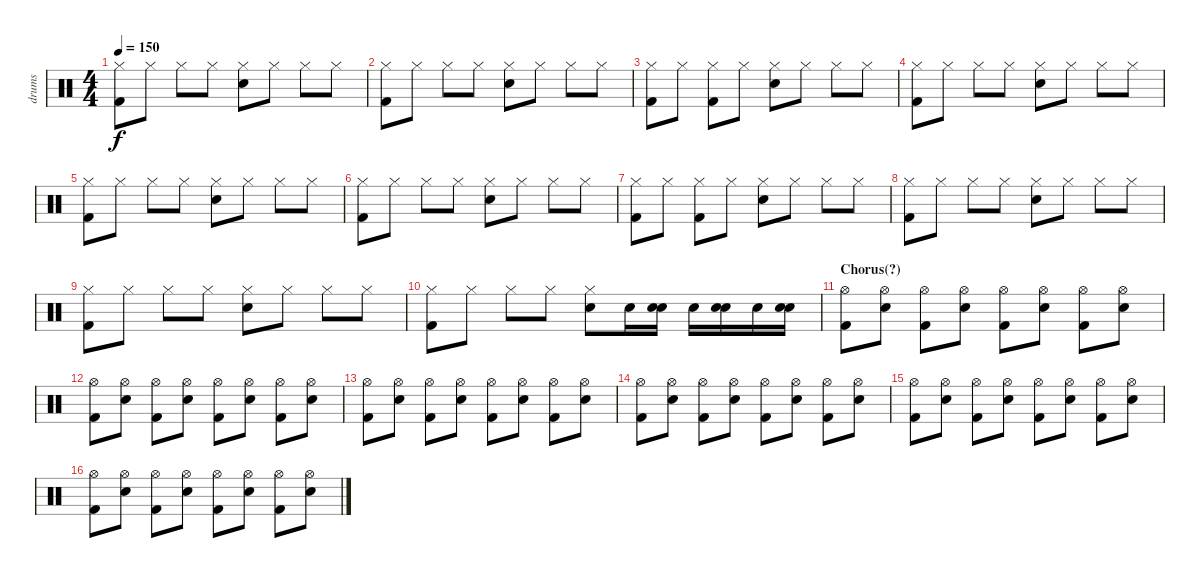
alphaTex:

\track ("drums" "drums") {instrument percussion}
\staff {score}
\articulation defaults
\ts (4 4)
\tempo 150
\clef neutral
\ks c
("Hi-Hat (closed)" "Kick (hit) 2").8{dy f} "Hi-Hat (closed)".8 "Hi-Hat (closed)".8 "Hi-Hat (closed)".8 ("Hi-Hat (closed)" "Snare (hit) 2").8 "Hi-Hat (closed)".8 "Hi-Hat (closed)".8 "Hi-Hat (closed)".8 |
("Hi-Hat (closed)" "Kick (hit) 2").8 "Hi-Hat (closed)".8 "Hi-Hat (closed)".8 "Hi-Hat (closed)".8 ("Hi-Hat (closed)" "Snare (hit) 2").8 "Hi-Hat (closed)".8 "Hi-Hat (closed)".8 "Hi-Hat (closed)".8 |
("Hi-Hat (closed)" "Kick (hit) 2").8 "Hi-Hat (closed)".8 ("Hi-Hat (closed)" "Kick (hit) 2").8 "Hi-Hat (closed)".8 ("Hi-Hat (closed)" "Snare (hit) 2").8 "Hi-Hat (closed)".8 "Hi-Hat (closed)".8 "Hi-Hat (closed)".8 |
("Hi-Hat (closed)" "Kick (hit) 2").8 "Hi-Hat (closed)".8 "Hi-Hat (closed)".8 "Hi-Hat (closed)".8 ("Hi-Hat (closed)" "Snare (hit) 2").8 "Hi-Hat (closed)".8 "Hi-Hat (closed)".8 "Hi-Hat (closed)".8 |
("Hi-Hat (closed)" "Kick (hit) 2").8 "Hi-Hat (closed)".8 "Hi-Hat (closed)".8 "Hi-Hat (closed)".8 ("Hi-Hat (closed)" "Snare (hit) 2").8 "Hi-Hat (closed)".8 "Hi-Hat (closed)".8 "Hi-Hat (closed)".8 |
("Hi-Hat (closed)" "Kick (hit) 2").8 "Hi-Hat (closed)".8 "Hi-Hat (closed)".8 "Hi-Hat (closed)".8 ("Hi-Hat (closed)" "Snare (hit) 2").8 "Hi-Hat (closed)".8 "Hi-Hat (closed)".8 "Hi-Hat (closed)".8 |
("Hi-Hat (closed)" "Kick (hit) 2").8 "Hi-Hat (closed)".8 ("Hi-Hat (closed)" "Kick (hit) 2").8 "Hi-Hat (closed)".8 ("Hi-Hat (closed)" "Snare (hit) 2").8 "Hi-Hat (closed)".8 "Hi-Hat (closed)".8 "Hi-Hat (closed)".8 |
("Hi-Hat (closed)" "Kick (hit) 2").8 "Hi-Hat (closed)".8 "Hi-Hat (closed)".8 "Hi-Hat (closed)".8 ("Hi-Hat (closed)" "Snare (hit) 2").8 "Hi-Hat (closed)".8 "Hi-Hat (closed)".8 "Hi-Hat (closed)".8 |
("Hi-Hat (closed)" "Kick (hit) 2").8 "Hi-Hat (closed)".8 "Hi-Hat (closed)".8 "Hi-Hat (closed)".8 ("Hi-Hat (closed)" "Snare (hit) 2").8 "Hi-Hat (closed)".8 "Hi-Hat (closed)".8 "Hi-Hat (closed)".8 |
("Hi-Hat (closed)" "Kick (hit) 2").8 "Hi-Hat (closed)".8 "Hi-Hat (closed)".8 "Hi-Hat (closed)".8 ("Hi-Hat (closed)" "Snare (hit) 2").8 "Snare (hit) 2".16 ("Snare (hit) 2" "Snare (hit) 2").16 "Snare (hit) 2".16 ("Snare (hit) 2" "Snare (hit) 2").16 "Snare (hit) 2".16 ("Snare (hit) 2" "Snare (hit) 2").16 |
\section ("" "Chorus(?)")
("Hi-Hat (open)" "Kick (hit) 2").8 ("Hi-Hat (open)" "Snare (hit) 2").8 ("Hi-Hat (open)" "Kick (hit) 2").8 ("Hi-Hat (open)" "Snare (hit) 2").8 ("Hi-Hat (open)" "Kick (hit) 2").8 ("Hi-Hat (open)" "Snare (hit) 2").8 ("Hi-Hat (open)" "Kick (hit) 2").8 ("Hi-Hat (open)" "Snare (hit) 2").8 |
("Hi-Hat (open)" "Kick (hit) 2").8 ("Hi-Hat (open)" "Snare (hit) 2").8 ("Hi-Hat (open)" "Kick (hit) 2").8 ("Hi-Hat (open)" "Snare (hit) 2").8 ("Hi-Hat (open)" "Kick (hit) 2").8 ("Hi-Hat (open)" "Snare (hit) 2").8 ("Hi-Hat (open)" "Kick (hit) 2").8 ("Hi-Hat (open)" "Snare (hit) 2").8 |
("Hi-Hat (open)" "Kick (hit) 2").8 ("Hi-Hat (open)" "Snare (hit) 2").8 ("Hi-Hat (open)" "Kick (hit) 2").8 ("Hi-Hat (open)" "Snare (hit) 2").8 ("Hi-Hat (open)" "Kick (hit) 2").8 ("Hi-Hat (open)" "Snare (hit) 2").8 ("Hi-Hat (open)" "Kick (hit) 2").8 ("Hi-Hat (open)" "Snare (hit) 2").8 |
("Hi-Hat (open)" "Kick (hit) 2").8 ("Hi-Hat (open)" "Snare (hit) 2").8 ("Hi-Hat (open)" "Kick (hit) 2").8 ("Hi-Hat (open)" "Snare (hit) 2").8 ("Hi-Hat (open)" "Kick (hit) 2").8 ("Hi-Hat (open)" "Snare (hit) 2").8 ("Hi-Hat (open)" "Kick (hit) 2").8 ("Hi-Hat (open)" "Snare (hit) 2").8 |
("Hi-Hat (open)" "Kick (hit) 2").8 ("Hi-Hat (open)" "Snare (hit) 2").8 ("Hi-Hat (open)" "Kick (hit) 2").8 ("Hi-Hat (open)" "Snare (hit) 2").8 ("Hi-Hat (open)" "Kick (hit) 2").8 ("Hi-Hat (open)" "Snare (hit) 2").8 ("Hi-Hat (open)" "Kick (hit) 2").8 ("Hi-Hat (open)" "Snare (hit) 2").8 |
("Hi-Hat (open)" "Kick (hit) 2").8 ("Hi-Hat (open)" "Snare (hit) 2").8 ("Hi-Hat (open)" "Kick (hit) 2").8 ("Hi-Hat (open)" "Snare (hit) 2").8 ("Hi-Hat (open)" "Kick (hit) 2").8 ("Hi-Hat (open)" "Snare (hit) 2").8 ("Hi-Hat (open)" "Kick (hit) 2").8 ("Hi-Hat (open)" "Snare (hit) 2").8
